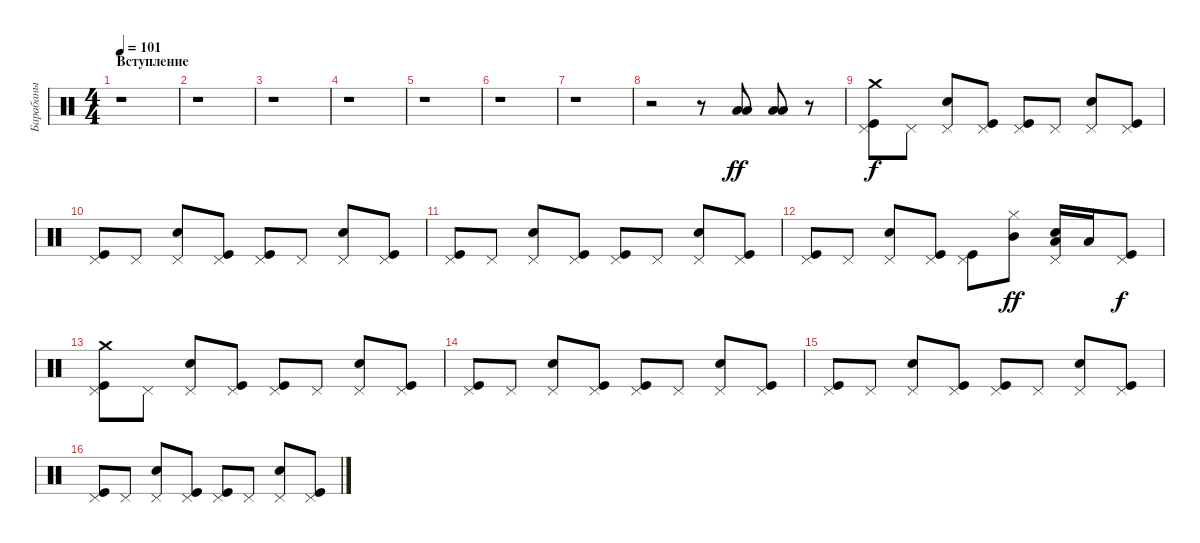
\track ("Барабаны" "Барабаны") {instrument percussion}
\staff {score}
\articulation defaults
\ts (4 4)
\section ("" "Вступление")
\tempo 101
\clef neutral
\ks c
r.1{dy ff} |
r.1 |
r.1 |
r.1 |
r.1 |
r.1 |
r.1 |
r.2 r.8 ("Low Floor Tom (hit)" "Low Tom (hit)").8 ("Low Floor Tom (hit)" "Low Tom (hit)").8 r.8 |
("Kick (hit)" "Pedal Hi-Hat (hit)" "Crash medium (hit)").8{dy f} "Pedal Hi-Hat (hit)".8 ("Snare (hit) 2" "Pedal Hi-Hat (hit)").8 ("Kick (hit)" "Pedal Hi-Hat (hit)").8 ("Kick (hit)" "Pedal Hi-Hat (hit)").8 "Pedal Hi-Hat (hit)".8 ("Snare (hit) 2" "Pedal Hi-Hat (hit)").8 ("Kick (hit)" "Pedal Hi-Hat (hit)").8 |
("Kick (hit)" "Pedal Hi-Hat (hit)").8 "Pedal Hi-Hat (hit)".8 ("Snare (hit) 2" "Pedal Hi-Hat (hit)").8 ("Kick (hit)" "Pedal Hi-Hat (hit)").8 ("Kick (hit)" "Pedal Hi-Hat (hit)").8 "Pedal Hi-Hat (hit)".8 ("Snare (hit) 2" "Pedal Hi-Hat (hit)").8 ("Kick (hit)" "Pedal Hi-Hat (hit)").8 |
("Kick (hit)" "Pedal Hi-Hat (hit)").8 "Pedal Hi-Hat (hit)".8 ("Snare (hit) 2" "Pedal Hi-Hat (hit)").8 ("Kick (hit)" "Pedal Hi-Hat (hit)").8 ("Kick (hit)" "Pedal Hi-Hat (hit)").8 "Pedal Hi-Hat (hit)".8 ("Snare (hit) 2" "Pedal Hi-Hat (hit)").8 ("Kick (hit)" "Pedal Hi-Hat (hit)").8 |
("Kick (hit)" "Pedal Hi-Hat (hit)").8 "Pedal Hi-Hat (hit)".8 ("Snare (hit) 2" "Pedal Hi-Hat (hit)").8 ("Kick (hit)" "Pedal Hi-Hat (hit)").8 ("Kick (hit)" "Pedal Hi-Hat (hit)").8 ("Hi-Hat (closed)" "Mid Tom (hit)").8{dy ff} ("Snare (hit) 2" "Pedal Hi-Hat (hit)" "Low Tom (hit)").16 "Low Tom (hit)".16 ("Kick (hit)" "Pedal Hi-Hat (hit)").8{dy f} |
("Kick (hit)" "Pedal Hi-Hat (hit)" "Crash medium (hit)").8 "Pedal Hi-Hat (hit)".8 ("Snare (hit) 2" "Pedal Hi-Hat (hit)").8 ("Kick (hit)" "Pedal Hi-Hat (hit)").8 ("Kick (hit)" "Pedal Hi-Hat (hit)").8 "Pedal Hi-Hat (hit)".8 ("Snare (hit) 2" "Pedal Hi-Hat (hit)").8 ("Kick (hit)" "Pedal Hi-Hat (hit)").8 |
("Kick (hit)" "Pedal Hi-Hat (hit)").8 "Pedal Hi-Hat (hit)".8 ("Snare (hit) 2" "Pedal Hi-Hat (hit)").8 ("Kick (hit)" "Pedal Hi-Hat (hit)").8 ("Kick (hit)" "Pedal Hi-Hat (hit)").8 "Pedal Hi-Hat (hit)".8 ("Snare (hit) 2" "Pedal Hi-Hat (hit)").8 ("Kick (hit)" "Pedal Hi-Hat (hit)").8 |
("Kick (hit)" "Pedal Hi-Hat (hit)").8 "Pedal Hi-Hat (hit)".8 ("Snare (hit) 2" "Pedal Hi-Hat (hit)").8 ("Kick (hit)" "Pedal Hi-Hat (hit)").8 ("Kick (hit)" "Pedal Hi-Hat (hit)").8 "Pedal Hi-Hat (hit)".8 ("Snare (hit) 2" "Pedal Hi-Hat (hit)").8 ("Kick (hit)" "Pedal Hi-Hat (hit)").8 |
("Kick (hit)" "Pedal Hi-Hat (hit)").8 "Pedal Hi-Hat (hit)".8 ("Snare (hit) 2" "Pedal Hi-Hat (hit)").8 ("Kick (hit)" "Pedal Hi-Hat (hit)").8 ("Kick (hit)" "Pedal Hi-Hat (hit)").8 "Pedal Hi-Hat (hit)".8 ("Snare (hit) 2" "Pedal Hi-Hat (hit)").8 ("Kick (hit)" "Pedal Hi-Hat (hit)").8
